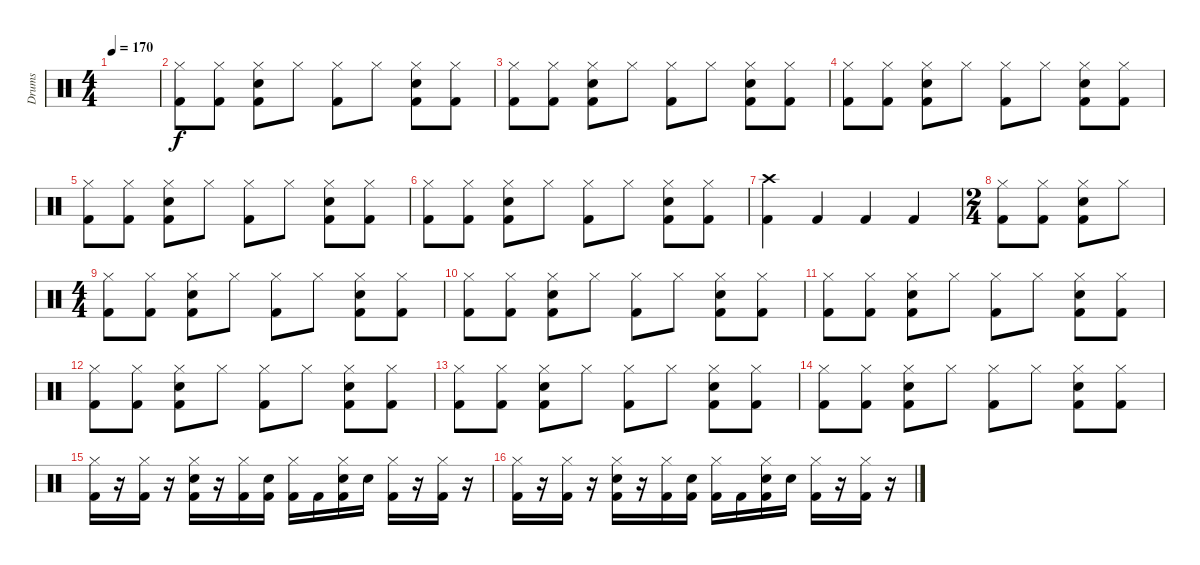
\track ("Drums" "Drums") {instrument percussion}
\staff {score}
\articulation defaults
\ts (4 4)
\tempo 170
\clef neutral
\ks c
|
("Hi-Hat (closed)" "Kick (hit) 2").8 ("Hi-Hat (closed)" "Kick (hit) 2").8 ("Hi-Hat (closed)" "Electric Snare (hit)" "Kick (hit) 2").8 "Hi-Hat (closed)".8 ("Hi-Hat (closed)" "Kick (hit) 2").8 "Hi-Hat (closed)".8 ("Hi-Hat (closed)" "Electric Snare (hit)" "Kick (hit) 2").8 ("Hi-Hat (closed)" "Kick (hit) 2").8 |
("Hi-Hat (closed)" "Kick (hit) 2").8 ("Hi-Hat (closed)" "Kick (hit) 2").8 ("Hi-Hat (closed)" "Electric Snare (hit)" "Kick (hit) 2").8 "Hi-Hat (closed)".8 ("Hi-Hat (closed)" "Kick (hit) 2").8 "Hi-Hat (closed)".8 ("Hi-Hat (closed)" "Electric Snare (hit)" "Kick (hit) 2").8 ("Hi-Hat (closed)" "Kick (hit) 2").8 |
("Hi-Hat (closed)" "Kick (hit) 2").8 ("Hi-Hat (closed)" "Kick (hit) 2").8 ("Hi-Hat (closed)" "Electric Snare (hit)" "Kick (hit) 2").8 "Hi-Hat (closed)".8 ("Hi-Hat (closed)" "Kick (hit) 2").8 "Hi-Hat (closed)".8 ("Hi-Hat (closed)" "Electric Snare (hit)" "Kick (hit) 2").8 ("Hi-Hat (closed)" "Kick (hit) 2").8 |
("Hi-Hat (closed)" "Kick (hit) 2").8 ("Hi-Hat (closed)" "Kick (hit) 2").8 ("Hi-Hat (closed)" "Electric Snare (hit)" "Kick (hit) 2").8 "Hi-Hat (closed)".8 ("Hi-Hat (closed)" "Kick (hit) 2").8 "Hi-Hat (closed)".8 ("Hi-Hat (closed)" "Electric Snare (hit)" "Kick (hit) 2").8 ("Hi-Hat (closed)" "Kick (hit) 2").8 |
("Hi-Hat (closed)" "Kick (hit) 2").8 ("Hi-Hat (closed)" "Kick (hit) 2").8 ("Hi-Hat (closed)" "Electric Snare (hit)" "Kick (hit) 2").8 "Hi-Hat (closed)".8 ("Hi-Hat (closed)" "Kick (hit) 2").8 "Hi-Hat (closed)".8 ("Hi-Hat (closed)" "Electric Snare (hit)" "Kick (hit) 2").8 ("Hi-Hat (closed)" "Kick (hit) 2").8 |
("Crash high (hit)" "Kick (hit) 2").4 "Kick (hit) 2".4 "Kick (hit) 2".4 "Kick (hit) 2".4 |
\ts (2 4)
("Hi-Hat (closed)" "Kick (hit) 2").8 ("Hi-Hat (closed)" "Kick (hit) 2").8 ("Hi-Hat (closed)" "Electric Snare (hit)" "Kick (hit) 2").8 "Hi-Hat (closed)".8 |
\ts (4 4)
("Hi-Hat (closed)" "Kick (hit) 2").8 ("Hi-Hat (closed)" "Kick (hit) 2").8 ("Hi-Hat (closed)" "Electric Snare (hit)" "Kick (hit) 2").8 "Hi-Hat (closed)".8 ("Hi-Hat (closed)" "Kick (hit) 2").8 "Hi-Hat (closed)".8 ("Hi-Hat (closed)" "Electric Snare (hit)" "Kick (hit) 2").8 ("Hi-Hat (closed)" "Kick (hit) 2").8 |
("Hi-Hat (closed)" "Kick (hit) 2").8 ("Hi-Hat (closed)" "Kick (hit) 2").8 ("Hi-Hat (closed)" "Electric Snare (hit)" "Kick (hit) 2").8 "Hi-Hat (closed)".8 ("Hi-Hat (closed)" "Kick (hit) 2").8 "Hi-Hat (closed)".8 ("Hi-Hat (closed)" "Electric Snare (hit)" "Kick (hit) 2").8 ("Hi-Hat (closed)" "Kick (hit) 2").8 |
("Hi-Hat (closed)" "Kick (hit) 2").8 ("Hi-Hat (closed)" "Kick (hit) 2").8 ("Hi-Hat (closed)" "Electric Snare (hit)" "Kick (hit) 2").8 "Hi-Hat (closed)".8 ("Hi-Hat (closed)" "Kick (hit) 2").8 "Hi-Hat (closed)".8 ("Hi-Hat (closed)" "Electric Snare (hit)" "Kick (hit) 2").8 ("Hi-Hat (closed)" "Kick (hit) 2").8 |
("Hi-Hat (closed)" "Kick (hit) 2").8 ("Hi-Hat (closed)" "Kick (hit) 2").8 ("Hi-Hat (closed)" "Electric Snare (hit)" "Kick (hit) 2").8 "Hi-Hat (closed)".8 ("Hi-Hat (closed)" "Kick (hit) 2").8 "Hi-Hat (closed)".8 ("Hi-Hat (closed)" "Electric Snare (hit)" "Kick (hit) 2").8 ("Hi-Hat (closed)" "Kick (hit) 2").8 |
("Hi-Hat (closed)" "Kick (hit) 2").8 ("Hi-Hat (closed)" "Kick (hit) 2").8 ("Hi-Hat (closed)" "Electric Snare (hit)" "Kick (hit) 2").8 "Hi-Hat (closed)".8 ("Hi-Hat (closed)" "Kick (hit) 2").8 "Hi-Hat (closed)".8 ("Hi-Hat (closed)" "Electric Snare (hit)" "Kick (hit) 2").8 ("Hi-Hat (closed)" "Kick (hit) 2").8 |
("Hi-Hat (closed)" "Kick (hit) 2").8 ("Hi-Hat (closed)" "Kick (hit) 2").8 ("Hi-Hat (closed)" "Electric Snare (hit)" "Kick (hit) 2").8 "Hi-Hat (closed)".8 ("Hi-Hat (closed)" "Kick (hit) 2").8 "Hi-Hat (closed)".8 ("Hi-Hat (closed)" "Electric Snare (hit)" "Kick (hit) 2").8 ("Hi-Hat (closed)" "Kick (hit) 2").8 |
("Hi-Hat (closed)" "Kick (hit) 2").16 r.16 ("Hi-Hat (closed)" "Kick (hit) 2").16 r.16 ("Hi-Hat (closed)" "Electric Snare (hit)" "Kick (hit) 2").16 r.16 ("Hi-Hat (closed)" "Kick (hit) 2").16 ("Kick (hit) 2" "Electric Snare (hit)").16 ("Hi-Hat (closed)" "Kick (hit) 2").16 "Kick (hit) 2".16 ("Hi-Hat (closed)" "Kick (hit) 2" "Electric Snare (hit)").16 "Electric Snare (hit)".16 ("Hi-Hat (closed)" "Kick (hit) 2").16 r.16 ("Hi-Hat (closed)" "Kick (hit) 2").16 r.16 |
("Hi-Hat (closed)" "Kick (hit) 2").16 r.16 ("Hi-Hat (closed)" "Kick (hit) 2").16 r.16 ("Hi-Hat (closed)" "Electric Snare (hit)" "Kick (hit) 2").16 r.16 ("Hi-Hat (closed)" "Kick (hit) 2").16 ("Kick (hit) 2" "Electric Snare (hit)").16 ("Hi-Hat (closed)" "Kick (hit) 2").16 "Kick (hit) 2".16 ("Hi-Hat (closed)" "Kick (hit) 2" "Electric Snare (hit)").16 "Electric Snare (hit)".16 ("Hi-Hat (closed)" "Kick (hit) 2").16 r.16 ("Hi-Hat (closed)" "Kick (hit) 2").16 r.16
